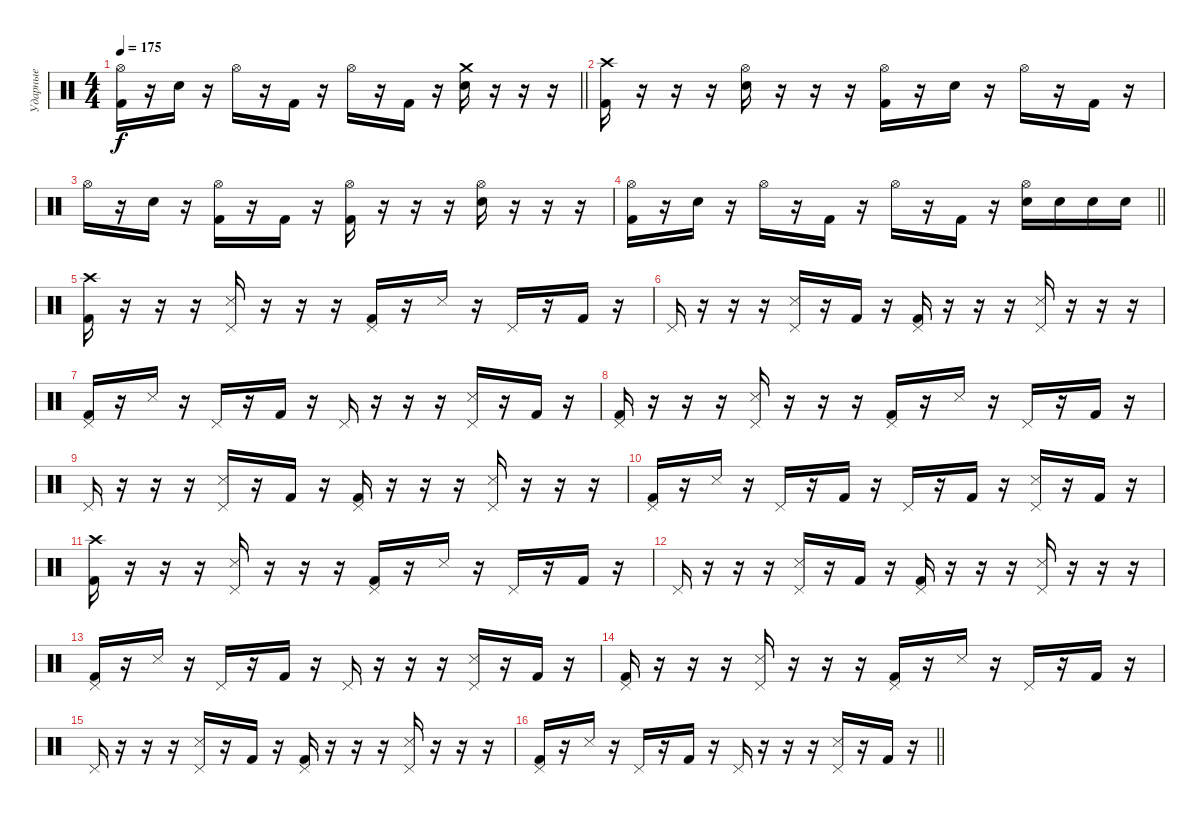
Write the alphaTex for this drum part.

\track ("Ударные" "Ударные") {instrument percussion}
\staff {score}
\articulation defaults
\ts (4 4)
\tempo 175
\clef neutral
\barLineRight lightlight
\ks c
("Hi-Hat (open)" "Kick (hit) 2").16{dy f} r.16 "Electric Snare (hit)".16 r.16 "Hi-Hat (open)".16 r.16 "Kick (hit) 2".16 r.16 "Hi-Hat (open)".16 r.16 "Kick (hit) 2".16 r.16 ("Crash medium (hit)" "Electric Snare (hit)").16 r.16 r.16 r.16 |
("Crash high (hit)" "Kick (hit) 2").16 r.16 r.16 r.16 ("Hi-Hat (open)" "Electric Snare (hit)").16 r.16 r.16 r.16 ("Hi-Hat (open)" "Kick (hit) 2").16 r.16 "Electric Snare (hit)".16 r.16 "Hi-Hat (open)".16 r.16 "Kick (hit) 2".16 r.16 |
"Hi-Hat (open)".16 r.16 "Electric Snare (hit)".16 r.16 ("Hi-Hat (open)" "Kick (hit) 2").16 r.16 "Kick (hit) 2".16 r.16 ("Hi-Hat (open)" "Kick (hit) 2").16 r.16 r.16 r.16 ("Hi-Hat (open)" "Electric Snare (hit)").16 r.16 r.16 r.16 |
\barLineRight lightlight
("Hi-Hat (open)" "Kick (hit) 2").16 r.16 "Electric Snare (hit)".16 r.16 "Hi-Hat (open)".16 r.16 "Kick (hit) 2".16 r.16 "Hi-Hat (open)".16 r.16 "Kick (hit) 2".16 r.16 ("Hi-Hat (open)" "Electric Snare (hit)").16 "Electric Snare (hit)".16 "Electric Snare (hit)".16 "Electric Snare (hit)".16 |
\section ("" " ")
("Crash high (hit)" "Kick (hit) 2").16 r.16 r.16 r.16 ("Pedal Hi-Hat (hit)" "Snare (side stick) 3").16 r.16 r.16 r.16 ("Pedal Hi-Hat (hit)" "Kick (hit) 2").16 r.16 "Snare (side stick) 3".16 r.16 "Pedal Hi-Hat (hit)".16 r.16 "Kick (hit) 2".16 r.16 |
"Pedal Hi-Hat (hit)".16 r.16 r.16 r.16 ("Pedal Hi-Hat (hit)" "Snare (side stick) 3").16 r.16 "Kick (hit) 2".16 r.16 ("Pedal Hi-Hat (hit)" "Kick (hit) 2").16 r.16 r.16 r.16 ("Pedal Hi-Hat (hit)" "Snare (side stick) 3").16 r.16 r.16 r.16 |
("Pedal Hi-Hat (hit)" "Kick (hit) 2").16 r.16 "Snare (side stick) 3".16 r.16 "Pedal Hi-Hat (hit)".16 r.16 "Kick (hit) 2".16 r.16 "Pedal Hi-Hat (hit)".16 r.16 r.16 r.16 ("Pedal Hi-Hat (hit)" "Snare (side stick) 3").16 r.16 "Kick (hit) 2".16 r.16 |
("Pedal Hi-Hat (hit)" "Kick (hit) 2").16 r.16 r.16 r.16 ("Pedal Hi-Hat (hit)" "Snare (side stick) 3").16 r.16 r.16 r.16 ("Pedal Hi-Hat (hit)" "Kick (hit) 2").16 r.16 "Snare (side stick) 3".16 r.16 "Pedal Hi-Hat (hit)".16 r.16 "Kick (hit) 2".16 r.16 |
"Pedal Hi-Hat (hit)".16 r.16 r.16 r.16 ("Pedal Hi-Hat (hit)" "Snare (side stick) 3").16 r.16 "Kick (hit) 2".16 r.16 ("Pedal Hi-Hat (hit)" "Kick (hit) 2").16 r.16 r.16 r.16 ("Pedal Hi-Hat (hit)" "Snare (side stick) 3").16 r.16 r.16 r.16 |
("Pedal Hi-Hat (hit)" "Kick (hit) 2").16 r.16 "Snare (side stick) 3".16 r.16 "Pedal Hi-Hat (hit)".16 r.16 "Kick (hit) 2".16 r.16 "Pedal Hi-Hat (hit)".16 r.16 "Kick (hit) 2".16 r.16 ("Pedal Hi-Hat (hit)" "Snare (side stick) 3").16 r.16 "Kick (hit) 2".16 r.16 |
("Crash high (hit)" "Kick (hit) 2").16 r.16 r.16 r.16 ("Pedal Hi-Hat (hit)" "Snare (side stick) 3").16 r.16 r.16 r.16 ("Pedal Hi-Hat (hit)" "Kick (hit) 2").16 r.16 "Snare (side stick) 3".16 r.16 "Pedal Hi-Hat (hit)".16 r.16 "Kick (hit) 2".16 r.16 |
"Pedal Hi-Hat (hit)".16 r.16 r.16 r.16 ("Pedal Hi-Hat (hit)" "Snare (side stick) 3").16 r.16 "Kick (hit) 2".16 r.16 ("Pedal Hi-Hat (hit)" "Kick (hit) 2").16 r.16 r.16 r.16 ("Pedal Hi-Hat (hit)" "Snare (side stick) 3").16 r.16 r.16 r.16 |
("Pedal Hi-Hat (hit)" "Kick (hit) 2").16 r.16 "Snare (side stick) 3".16 r.16 "Pedal Hi-Hat (hit)".16 r.16 "Kick (hit) 2".16 r.16 "Pedal Hi-Hat (hit)".16 r.16 r.16 r.16 ("Pedal Hi-Hat (hit)" "Snare (side stick) 3").16 r.16 "Kick (hit) 2".16 r.16 |
("Pedal Hi-Hat (hit)" "Kick (hit) 2").16 r.16 r.16 r.16 ("Pedal Hi-Hat (hit)" "Snare (side stick) 3").16 r.16 r.16 r.16 ("Pedal Hi-Hat (hit)" "Kick (hit) 2").16 r.16 "Snare (side stick) 3".16 r.16 "Pedal Hi-Hat (hit)".16 r.16 "Kick (hit) 2".16 r.16 |
"Pedal Hi-Hat (hit)".16 r.16 r.16 r.16 ("Pedal Hi-Hat (hit)" "Snare (side stick) 3").16 r.16 "Kick (hit) 2".16 r.16 ("Pedal Hi-Hat (hit)" "Kick (hit) 2").16 r.16 r.16 r.16 ("Pedal Hi-Hat (hit)" "Snare (side stick) 3").16 r.16 r.16 r.16 |
\barLineRight lightlight
("Pedal Hi-Hat (hit)" "Kick (hit) 2").16 r.16 "Snare (side stick) 3".16 r.16 "Pedal Hi-Hat (hit)".16 r.16 "Kick (hit) 2".16 r.16 "Pedal Hi-Hat (hit)".16 r.16 r.16 r.16 ("Pedal Hi-Hat (hit)" "Snare (side stick) 3").16 r.16 "Kick (hit) 2".16 r.16
